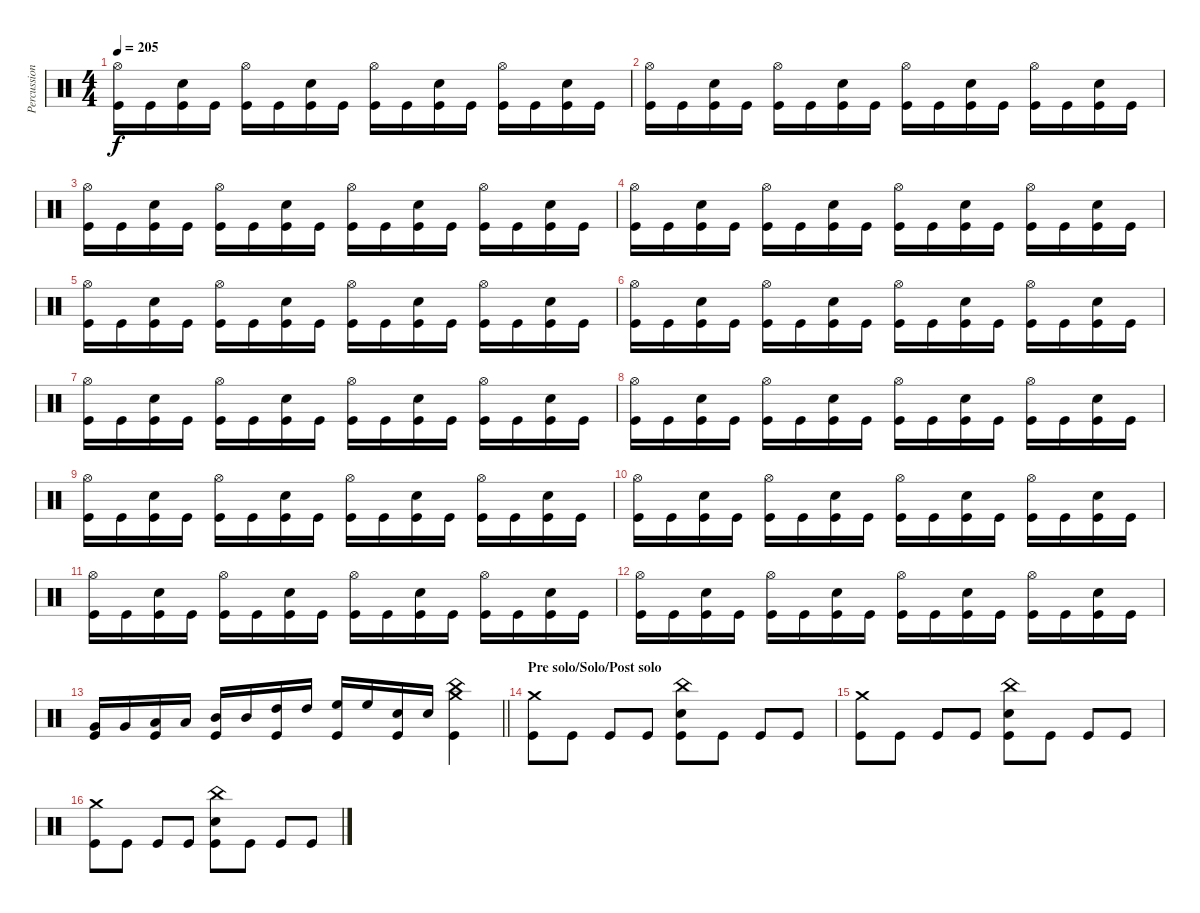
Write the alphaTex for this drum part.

\track ("Percussion" "Percussion") {instrument percussion}
\staff {score}
\articulation defaults
\ts (4 4)
\tempo 205
\clef neutral
\ks c
("Hi-Hat (open)" "Kick (hit)").16{dy f} "Kick (hit)".16 ("Electric Snare (hit)" "Kick (hit)").16 "Kick (hit)".16 ("Hi-Hat (open)" "Kick (hit)").16 "Kick (hit)".16 ("Electric Snare (hit)" "Kick (hit)").16 "Kick (hit)".16 ("Hi-Hat (open)" "Kick (hit)").16 "Kick (hit)".16 ("Electric Snare (hit)" "Kick (hit)").16 "Kick (hit)".16 ("Hi-Hat (open)" "Kick (hit)").16 "Kick (hit)".16 ("Electric Snare (hit)" "Kick (hit)").16 "Kick (hit)".16 |
("Hi-Hat (open)" "Kick (hit)").16 "Kick (hit)".16 ("Electric Snare (hit)" "Kick (hit)").16 "Kick (hit)".16 ("Hi-Hat (open)" "Kick (hit)").16 "Kick (hit)".16 ("Electric Snare (hit)" "Kick (hit)").16 "Kick (hit)".16 ("Hi-Hat (open)" "Kick (hit)").16 "Kick (hit)".16 ("Electric Snare (hit)" "Kick (hit)").16 "Kick (hit)".16 ("Hi-Hat (open)" "Kick (hit)").16 "Kick (hit)".16 ("Electric Snare (hit)" "Kick (hit)").16 "Kick (hit)".16 |
("Hi-Hat (open)" "Kick (hit)").16 "Kick (hit)".16 ("Electric Snare (hit)" "Kick (hit)").16 "Kick (hit)".16 ("Hi-Hat (open)" "Kick (hit)").16 "Kick (hit)".16 ("Electric Snare (hit)" "Kick (hit)").16 "Kick (hit)".16 ("Hi-Hat (open)" "Kick (hit)").16 "Kick (hit)".16 ("Electric Snare (hit)" "Kick (hit)").16 "Kick (hit)".16 ("Hi-Hat (open)" "Kick (hit)").16 "Kick (hit)".16 ("Electric Snare (hit)" "Kick (hit)").16 "Kick (hit)".16 |
("Hi-Hat (open)" "Kick (hit)").16 "Kick (hit)".16 ("Electric Snare (hit)" "Kick (hit)").16 "Kick (hit)".16 ("Hi-Hat (open)" "Kick (hit)").16 "Kick (hit)".16 ("Electric Snare (hit)" "Kick (hit)").16 "Kick (hit)".16 ("Hi-Hat (open)" "Kick (hit)").16 "Kick (hit)".16 ("Electric Snare (hit)" "Kick (hit)").16 "Kick (hit)".16 ("Hi-Hat (open)" "Kick (hit)").16 "Kick (hit)".16 ("Electric Snare (hit)" "Kick (hit)").16 "Kick (hit)".16 |
("Hi-Hat (open)" "Kick (hit)").16 "Kick (hit)".16 ("Electric Snare (hit)" "Kick (hit)").16 "Kick (hit)".16 ("Hi-Hat (open)" "Kick (hit)").16 "Kick (hit)".16 ("Electric Snare (hit)" "Kick (hit)").16 "Kick (hit)".16 ("Hi-Hat (open)" "Kick (hit)").16 "Kick (hit)".16 ("Electric Snare (hit)" "Kick (hit)").16 "Kick (hit)".16 ("Hi-Hat (open)" "Kick (hit)").16 "Kick (hit)".16 ("Electric Snare (hit)" "Kick (hit)").16 "Kick (hit)".16 |
("Hi-Hat (open)" "Kick (hit)").16 "Kick (hit)".16 ("Electric Snare (hit)" "Kick (hit)").16 "Kick (hit)".16 ("Hi-Hat (open)" "Kick (hit)").16 "Kick (hit)".16 ("Electric Snare (hit)" "Kick (hit)").16 "Kick (hit)".16 ("Hi-Hat (open)" "Kick (hit)").16 "Kick (hit)".16 ("Electric Snare (hit)" "Kick (hit)").16 "Kick (hit)".16 ("Hi-Hat (open)" "Kick (hit)").16 "Kick (hit)".16 ("Electric Snare (hit)" "Kick (hit)").16 "Kick (hit)".16 |
("Hi-Hat (open)" "Kick (hit)").16 "Kick (hit)".16 ("Electric Snare (hit)" "Kick (hit)").16 "Kick (hit)".16 ("Hi-Hat (open)" "Kick (hit)").16 "Kick (hit)".16 ("Electric Snare (hit)" "Kick (hit)").16 "Kick (hit)".16 ("Hi-Hat (open)" "Kick (hit)").16 "Kick (hit)".16 ("Electric Snare (hit)" "Kick (hit)").16 "Kick (hit)".16 ("Hi-Hat (open)" "Kick (hit)").16 "Kick (hit)".16 ("Electric Snare (hit)" "Kick (hit)").16 "Kick (hit)".16 |
("Hi-Hat (open)" "Kick (hit)").16 "Kick (hit)".16 ("Electric Snare (hit)" "Kick (hit)").16 "Kick (hit)".16 ("Hi-Hat (open)" "Kick (hit)").16 "Kick (hit)".16 ("Electric Snare (hit)" "Kick (hit)").16 "Kick (hit)".16 ("Hi-Hat (open)" "Kick (hit)").16 "Kick (hit)".16 ("Electric Snare (hit)" "Kick (hit)").16 "Kick (hit)".16 ("Hi-Hat (open)" "Kick (hit)").16 "Kick (hit)".16 ("Electric Snare (hit)" "Kick (hit)").16 "Kick (hit)".16 |
("Hi-Hat (open)" "Kick (hit)").16 "Kick (hit)".16 ("Electric Snare (hit)" "Kick (hit)").16 "Kick (hit)".16 ("Hi-Hat (open)" "Kick (hit)").16 "Kick (hit)".16 ("Electric Snare (hit)" "Kick (hit)").16 "Kick (hit)".16 ("Hi-Hat (open)" "Kick (hit)").16 "Kick (hit)".16 ("Electric Snare (hit)" "Kick (hit)").16 "Kick (hit)".16 ("Hi-Hat (open)" "Kick (hit)").16 "Kick (hit)".16 ("Electric Snare (hit)" "Kick (hit)").16 "Kick (hit)".16 |
("Hi-Hat (open)" "Kick (hit)").16 "Kick (hit)".16 ("Electric Snare (hit)" "Kick (hit)").16 "Kick (hit)".16 ("Hi-Hat (open)" "Kick (hit)").16 "Kick (hit)".16 ("Electric Snare (hit)" "Kick (hit)").16 "Kick (hit)".16 ("Hi-Hat (open)" "Kick (hit)").16 "Kick (hit)".16 ("Electric Snare (hit)" "Kick (hit)").16 "Kick (hit)".16 ("Hi-Hat (open)" "Kick (hit)").16 "Kick (hit)".16 ("Electric Snare (hit)" "Kick (hit)").16 "Kick (hit)".16 |
("Hi-Hat (open)" "Kick (hit)").16 "Kick (hit)".16 ("Electric Snare (hit)" "Kick (hit)").16 "Kick (hit)".16 ("Hi-Hat (open)" "Kick (hit)").16 "Kick (hit)".16 ("Electric Snare (hit)" "Kick (hit)").16 "Kick (hit)".16 ("Hi-Hat (open)" "Kick (hit)").16 "Kick (hit)".16 ("Electric Snare (hit)" "Kick (hit)").16 "Kick (hit)".16 ("Hi-Hat (open)" "Kick (hit)").16 "Kick (hit)".16 ("Electric Snare (hit)" "Kick (hit)").16 "Kick (hit)".16 |
("Hi-Hat (open)" "Kick (hit)").16 "Kick (hit)".16 ("Electric Snare (hit)" "Kick (hit)").16 "Kick (hit)".16 ("Hi-Hat (open)" "Kick (hit)").16 "Kick (hit)".16 ("Electric Snare (hit)" "Kick (hit)").16 "Kick (hit)".16 ("Hi-Hat (open)" "Kick (hit)").16 "Kick (hit)".16 ("Electric Snare (hit)" "Kick (hit)").16 "Kick (hit)".16 ("Hi-Hat (open)" "Kick (hit)").16 "Kick (hit)".16 ("Electric Snare (hit)" "Kick (hit)").16 "Kick (hit)".16 |
\barLineRight lightlight
("Very Low Tom (hit)" "Kick (hit)").16 "Very Low Tom (hit)".16 ("Low Tom (hit)" "Kick (hit)").16 "Low Tom (hit)".16 ("Mid Tom (hit)" "Kick (hit)").16 "Mid Tom (hit)".16 ("High Tom (hit)" "Kick (hit)").16 "High Tom (hit)".16 ("High Floor Tom (hit)" "Kick (hit)").16 "High Floor Tom (hit)".16 ("Electric Snare (hit)" "Kick (hit)").16 "Electric Snare (hit)".16 ("China (hit)" "Crash medium (hit)" "Kick (hit)").4 |
\section ("" "Pre solo/Solo/Post solo")
("Crash medium (hit)" "Kick (hit)").8 "Kick (hit)".8 "Kick (hit)".8 "Kick (hit)".8 ("China (hit)" "Electric Snare (hit)" "Kick (hit)").8 "Kick (hit)".8 "Kick (hit)".8 "Kick (hit)".8 |
("Crash medium (hit)" "Kick (hit)").8 "Kick (hit)".8 "Kick (hit)".8 "Kick (hit)".8 ("China (hit)" "Electric Snare (hit)" "Kick (hit)").8 "Kick (hit)".8 "Kick (hit)".8 "Kick (hit)".8 |
("Crash medium (hit)" "Kick (hit)").8 "Kick (hit)".8 "Kick (hit)".8 "Kick (hit)".8 ("China (hit)" "Electric Snare (hit)" "Kick (hit)").8 "Kick (hit)".8 "Kick (hit)".8 "Kick (hit)".8
